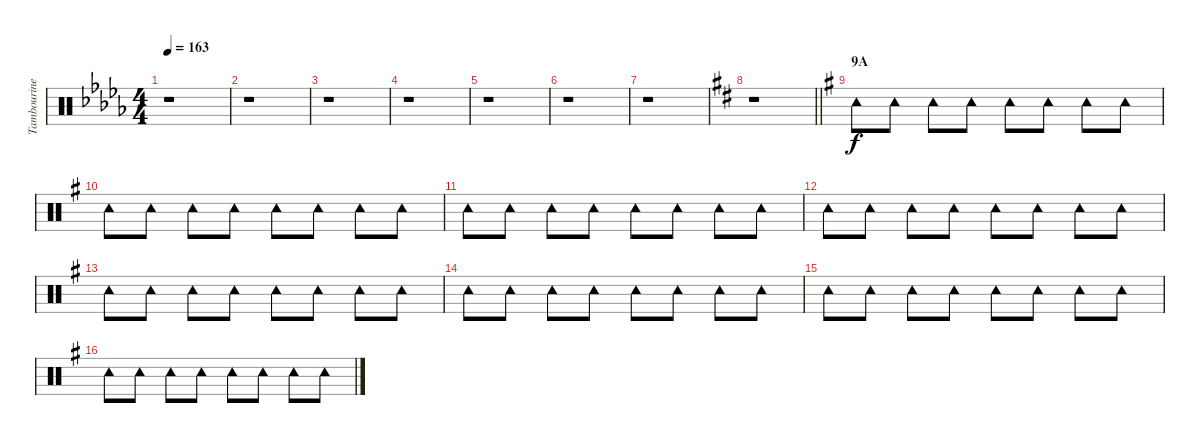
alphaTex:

\track ("Tambourine" "Tambourine") {instrument percussion}
\staff {score}
\articulation defaults
\ts (4 4)
\tempo 163
\clef neutral
\ks db
r.1{dy mp} |
r.1 |
r.1 |
r.1 |
r.1 |
r.1 |
r.1 |
\barLineRight lightlight
\ks d
r.1 |
\section ("" "9A")
\ks g "Tambourine (hit)".8{dy f} "Tambourine (hit)".8 "Tambourine (hit)".8 "Tambourine (hit)".8 "Tambourine (hit)".8 "Tambourine (hit)".8 "Tambourine (hit)".8 "Tambourine (hit)".8
|
"Tambourine (hit)".8 "Tambourine (hit)".8 "Tambourine (hit)".8 "Tambourine (hit)".8 "Tambourine (hit)".8 "Tambourine (hit)".8 "Tambourine (hit)".8 "Tambourine (hit)".8 |
"Tambourine (hit)".8 "Tambourine (hit)".8 "Tambourine (hit)".8 "Tambourine (hit)".8 "Tambourine (hit)".8 "Tambourine (hit)".8 "Tambourine (hit)".8 "Tambourine (hit)".8 |
"Tambourine (hit)".8 "Tambourine (hit)".8 "Tambourine (hit)".8 "Tambourine (hit)".8 "Tambourine (hit)".8 "Tambourine (hit)".8 "Tambourine (hit)".8 "Tambourine (hit)".8 |
"Tambourine (hit)".8 "Tambourine (hit)".8 "Tambourine (hit)".8 "Tambourine (hit)".8 "Tambourine (hit)".8 "Tambourine (hit)".8 "Tambourine (hit)".8 "Tambourine (hit)".8 |
"Tambourine (hit)".8 "Tambourine (hit)".8 "Tambourine (hit)".8 "Tambourine (hit)".8 "Tambourine (hit)".8 "Tambourine (hit)".8 "Tambourine (hit)".8 "Tambourine (hit)".8 |
"Tambourine (hit)".8 "Tambourine (hit)".8 "Tambourine (hit)".8 "Tambourine (hit)".8 "Tambourine (hit)".8 "Tambourine (hit)".8 "Tambourine (hit)".8 "Tambourine (hit)".8 |
"Tambourine (hit)".8 "Tambourine (hit)".8 "Tambourine (hit)".8 "Tambourine (hit)".8 "Tambourine (hit)".8 "Tambourine (hit)".8 "Tambourine (hit)".8 "Tambourine (hit)".8
